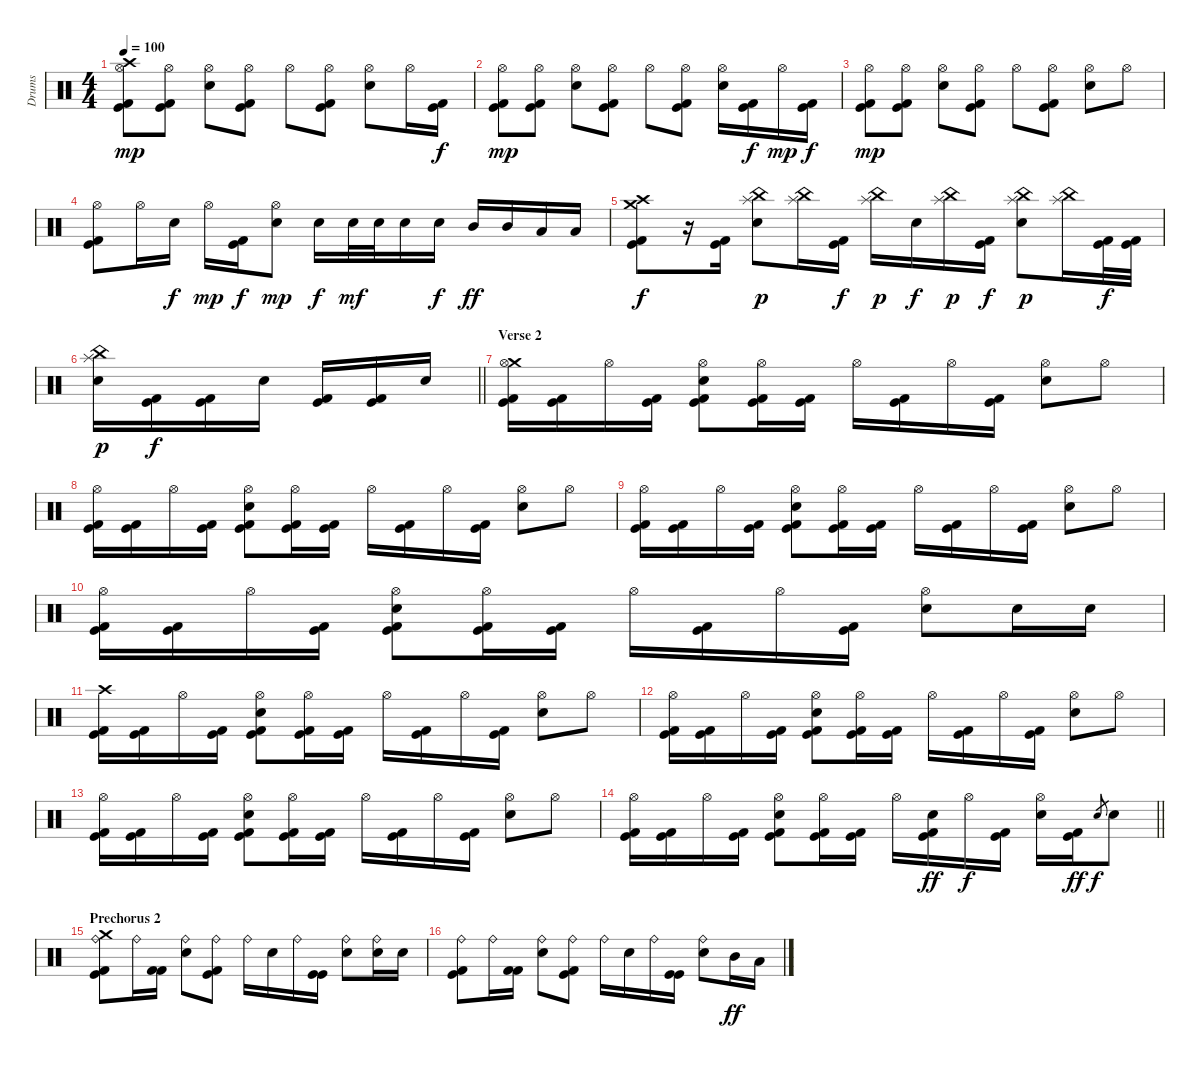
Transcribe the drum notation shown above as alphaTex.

\track ("Drums" "Drums") {instrument percussion}
\staff {score}
\articulation defaults
\ts (4 4)
\tempo 100
\clef neutral
\ks c
("Crash high (hit)" "Hi-Hat (open)" "Kick (hit)" "Kick (hit) 2").8{dy mp} ("Hi-Hat (open)" "Kick (hit)" "Kick (hit) 2").8 ("Hi-Hat (open)" "Snare (hit) 2").8 ("Hi-Hat (open)" "Kick (hit)" "Kick (hit) 2").8 "Hi-Hat (open)".8 ("Hi-Hat (open)" "Kick (hit)" "Kick (hit) 2").8 ("Hi-Hat (open)" "Snare (hit) 2").8 "Hi-Hat (open)".16 ("Kick (hit)" "Kick (hit) 2").16{dy f} |
("Hi-Hat (open)" "Kick (hit)" "Kick (hit) 2").8{dy mp} ("Hi-Hat (open)" "Kick (hit)" "Kick (hit) 2").8 ("Hi-Hat (open)" "Snare (hit) 2").8 ("Hi-Hat (open)" "Kick (hit)" "Kick (hit) 2").8 "Hi-Hat (open)".8 ("Hi-Hat (open)" "Kick (hit)" "Kick (hit) 2").8 ("Hi-Hat (open)" "Snare (hit) 2").16 ("Kick (hit)" "Kick (hit) 2").16{dy f} "Hi-Hat (open)".16{dy mp} ("Kick (hit)" "Kick (hit) 2").16{dy f} |
("Hi-Hat (open)" "Kick (hit)" "Kick (hit) 2").8{dy mp} ("Hi-Hat (open)" "Kick (hit)" "Kick (hit) 2").8 ("Hi-Hat (open)" "Snare (hit) 2").8 ("Hi-Hat (open)" "Kick (hit)" "Kick (hit) 2").8 "Hi-Hat (open)".8 ("Hi-Hat (open)" "Kick (hit)" "Kick (hit) 2").8 ("Hi-Hat (open)" "Snare (hit) 2").8 "Hi-Hat (open)".8 |
("Hi-Hat (open)" "Kick (hit)" "Kick (hit) 2").8 "Hi-Hat (open)".16 "Snare (hit) 2".16{dy f} "Hi-Hat (open)".16{dy mp} ("Kick (hit)" "Kick (hit) 2").16{dy f} ("Hi-Hat (open)" "Snare (hit) 2").8{dy mp} "Snare (hit) 2".16{dy f} "Snare (hit) 2".32{dy mf} "Snare (hit) 2".32 "Snare (hit) 2".16 "Snare (hit) 2".16{dy f} "Mid Tom (hit)".16{dy ff} "Mid Tom (hit)".16 "Low Tom (hit)".16 "Low Tom (hit)".16 |
("Crash medium (hit)" "Crash high (hit)" "Kick (hit)" "Kick (hit) 2").8{dy f} r.16 ("Kick (hit)" "Kick (hit) 2").16 ("Splash (hit)" "China (hit)" "Snare (hit) 2").8{dy p} ("Splash (hit)" "China (hit)").16 ("Kick (hit)" "Kick (hit) 2").16{dy f} ("Splash (hit)" "China (hit)").16{dy p} "Snare (hit) 2".16{dy f} ("Splash (hit)" "China (hit)").16{dy p} ("Kick (hit)" "Kick (hit) 2").16{dy f} ("Splash (hit)" "China (hit)" "Snare (hit) 2").8{dy p} ("Splash (hit)" "China (hit)").16 ("Kick (hit)" "Kick (hit) 2").32{dy f} ("Kick (hit)" "Kick (hit) 2").32 |
\barLineRight lightlight
("Splash (hit)" "China (hit)" "Snare (hit) 2").16{dy p} ("Kick (hit)" "Kick (hit) 2").16{dy f} ("Kick (hit)" "Kick (hit) 2").16 "Snare (hit) 2".16 ("Kick (hit)" "Kick (hit) 2").16 ("Kick (hit)" "Kick (hit) 2").16 "Snare (hit) 2".16 |
\section ("" "Verse 2")
("Crash medium (hit)" "Hi-Hat (open)" "Kick (hit)" "Kick (hit) 2").16 ("Kick (hit)" "Kick (hit) 2").16 "Hi-Hat (open)".16 ("Kick (hit)" "Kick (hit) 2").16 ("Hi-Hat (open)" "Snare (hit) 2" "Kick (hit)" "Kick (hit) 2").8 ("Hi-Hat (open)" "Kick (hit)" "Kick (hit) 2").16 ("Kick (hit)" "Kick (hit) 2").16 "Hi-Hat (open)".16 ("Kick (hit)" "Kick (hit) 2").16 "Hi-Hat (open)".16 ("Kick (hit)" "Kick (hit) 2").16 ("Hi-Hat (open)" "Snare (hit) 2").8 "Hi-Hat (open)".8 |
("Hi-Hat (open)" "Kick (hit)" "Kick (hit) 2").16 ("Kick (hit)" "Kick (hit) 2").16 "Hi-Hat (open)".16 ("Kick (hit)" "Kick (hit) 2").16 ("Hi-Hat (open)" "Snare (hit) 2" "Kick (hit)" "Kick (hit) 2").8 ("Hi-Hat (open)" "Kick (hit)" "Kick (hit) 2").16 ("Kick (hit)" "Kick (hit) 2").16 "Hi-Hat (open)".16 ("Kick (hit)" "Kick (hit) 2").16 "Hi-Hat (open)".16 ("Kick (hit)" "Kick (hit) 2").16 ("Hi-Hat (open)" "Snare (hit) 2").8 "Hi-Hat (open)".8 |
("Hi-Hat (open)" "Kick (hit)" "Kick (hit) 2").16 ("Kick (hit)" "Kick (hit) 2").16 "Hi-Hat (open)".16 ("Kick (hit)" "Kick (hit) 2").16 ("Hi-Hat (open)" "Snare (hit) 2" "Kick (hit)" "Kick (hit) 2").8 ("Hi-Hat (open)" "Kick (hit)" "Kick (hit) 2").16 ("Kick (hit)" "Kick (hit) 2").16 "Hi-Hat (open)".16 ("Kick (hit)" "Kick (hit) 2").16 "Hi-Hat (open)".16 ("Kick (hit)" "Kick (hit) 2").16 ("Hi-Hat (open)" "Snare (hit) 2").8 "Hi-Hat (open)".8 |
("Hi-Hat (open)" "Kick (hit)" "Kick (hit) 2").16 ("Kick (hit)" "Kick (hit) 2").16 "Hi-Hat (open)".16 ("Kick (hit)" "Kick (hit) 2").16 ("Hi-Hat (open)" "Snare (hit) 2" "Kick (hit)" "Kick (hit) 2").8 ("Hi-Hat (open)" "Kick (hit)" "Kick (hit) 2").16 ("Kick (hit)" "Kick (hit) 2").16 "Hi-Hat (open)".16 ("Kick (hit)" "Kick (hit) 2").16 "Hi-Hat (open)".16 ("Kick (hit)" "Kick (hit) 2").16 ("Hi-Hat (open)" "Snare (hit) 2").8 "Snare (hit) 2".16 "Snare (hit) 2".16 |
("Crash high (hit)" "Kick (hit)" "Kick (hit) 2").16 ("Kick (hit)" "Kick (hit) 2").16 "Hi-Hat (open)".16 ("Kick (hit)" "Kick (hit) 2").16 ("Hi-Hat (open)" "Snare (hit) 2" "Kick (hit)" "Kick (hit) 2").8 ("Hi-Hat (open)" "Kick (hit)" "Kick (hit) 2").16 ("Kick (hit)" "Kick (hit) 2").16 "Hi-Hat (open)".16 ("Kick (hit)" "Kick (hit) 2").16 "Hi-Hat (open)".16 ("Kick (hit)" "Kick (hit) 2").16 ("Hi-Hat (open)" "Snare (hit) 2").8 "Hi-Hat (open)".8 |
("Hi-Hat (open)" "Kick (hit)" "Kick (hit) 2").16 ("Kick (hit)" "Kick (hit) 2").16 "Hi-Hat (open)".16 ("Kick (hit)" "Kick (hit) 2").16 ("Hi-Hat (open)" "Snare (hit) 2" "Kick (hit)" "Kick (hit) 2").8 ("Hi-Hat (open)" "Kick (hit)" "Kick (hit) 2").16 ("Kick (hit)" "Kick (hit) 2").16 "Hi-Hat (open)".16 ("Kick (hit)" "Kick (hit) 2").16 "Hi-Hat (open)".16 ("Kick (hit)" "Kick (hit) 2").16 ("Hi-Hat (open)" "Snare (hit) 2").8 "Hi-Hat (open)".8 |
("Hi-Hat (open)" "Kick (hit)" "Kick (hit) 2").16 ("Kick (hit)" "Kick (hit) 2").16 "Hi-Hat (open)".16 ("Kick (hit)" "Kick (hit) 2").16 ("Hi-Hat (open)" "Snare (hit) 2" "Kick (hit)" "Kick (hit) 2").8 ("Hi-Hat (open)" "Kick (hit)" "Kick (hit) 2").16 ("Kick (hit)" "Kick (hit) 2").16 "Hi-Hat (open)".16 ("Kick (hit)" "Kick (hit) 2").16 "Hi-Hat (open)".16 ("Kick (hit)" "Kick (hit) 2").16 ("Hi-Hat (open)" "Snare (hit) 2").8 "Hi-Hat (open)".8 |
\barLineRight lightlight
("Hi-Hat (open)" "Kick (hit)" "Kick (hit) 2").16 ("Kick (hit)" "Kick (hit) 2").16 "Hi-Hat (open)".16 ("Kick (hit)" "Kick (hit) 2").16 ("Hi-Hat (open)" "Snare (hit) 2" "Kick (hit)" "Kick (hit) 2").8 ("Hi-Hat (open)" "Kick (hit)" "Kick (hit) 2").16 ("Kick (hit)" "Kick (hit) 2").16 "Hi-Hat (open)".16 ("Snare (hit) 2" "Kick (hit)" "Kick (hit) 2").16{dy ff} "Hi-Hat (open)".16{dy f} ("Kick (hit)" "Kick (hit) 2").16 ("Hi-Hat (open)" "Snare (hit) 2").16 ("Kick (hit)" "Kick (hit) 2").16{dy ff} "Snare (hit) 2".8{gr dy f} "Snare (hit) 2".8 |
\section ("" "Prechorus 2")
("Crash medium (hit)" "Ride (bell)" "Kick (hit)" "Kick (hit) 2").8 "Ride (bell)".16 ("Kick (hit) 2" "Kick (hit) 2").16 ("Ride (bell)" "Snare (hit) 2").8 ("Ride (bell)" "Kick (hit)" "Kick (hit) 2").8 "Ride (bell)".16 "Snare (hit) 2".16 "Ride (bell)".16 ("Kick (hit)" "Kick (hit)").16 ("Ride (bell)" "Snare (hit) 2").8 ("Ride (bell)" "Snare (hit) 2").16 "Snare (hit) 2".16 |
("Ride (bell)" "Kick (hit)" "Kick (hit) 2").8 "Ride (bell)".16 ("Kick (hit) 2" "Kick (hit) 2").16 ("Ride (bell)" "Snare (hit) 2").8 ("Ride (bell)" "Kick (hit)" "Kick (hit) 2").8 "Ride (bell)".16 "Snare (hit) 2".16 "Ride (bell)".16 ("Kick (hit)" "Kick (hit)").16 ("Ride (bell)" "Snare (hit) 2").8 "Mid Tom (hit)".16{dy ff} "Low Tom (hit)".16
